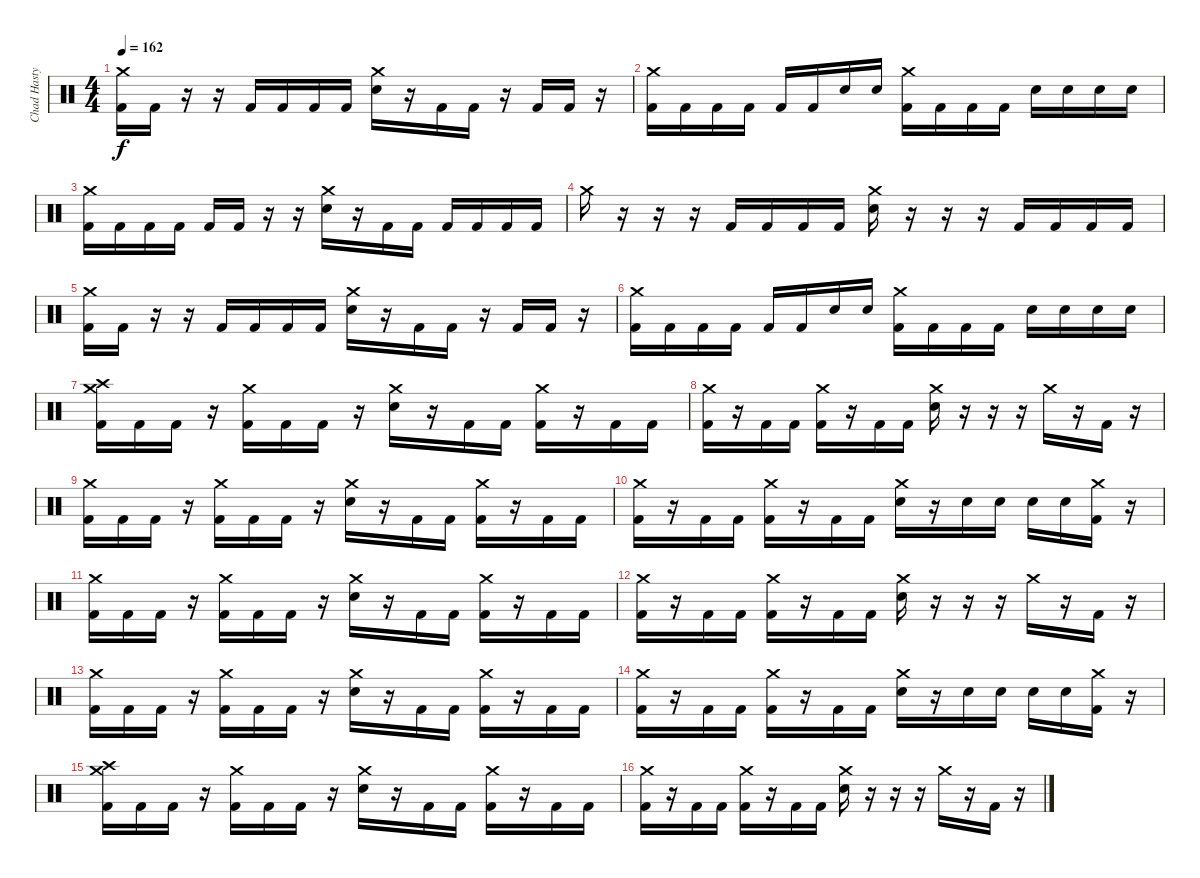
\track ("Chad Hasty" "Chad Hasty") {instrument percussion}
\staff {score}
\articulation defaults
\ts (4 4)
\tempo 162
\clef neutral
\ks c
("Crash medium (hit)" "Kick (hit) 2").16{dy f} "Kick (hit) 2".16 r.16 r.16 "Kick (hit) 2".16 "Kick (hit) 2".16 "Kick (hit) 2".16 "Kick (hit) 2".16 ("Crash medium (hit)" "Snare (hit) 2").16 r.16 "Kick (hit) 2".16 "Kick (hit) 2".16 r.16 "Kick (hit) 2".16 "Kick (hit) 2".16 r.16 |
("Crash medium (hit)" "Kick (hit) 2").16 "Kick (hit) 2".16 "Kick (hit) 2".16 "Kick (hit) 2".16 "Kick (hit) 2".16 "Kick (hit) 2".16 "Snare (hit) 2".16 "Snare (hit) 2".16 ("Crash medium (hit)" "Kick (hit) 2").16 "Kick (hit) 2".16 "Kick (hit) 2".16 "Kick (hit) 2".16 "Snare (hit) 2".16 "Snare (hit) 2".16 "Snare (hit) 2".16 "Snare (hit) 2".16 |
("Crash medium (hit)" "Kick (hit) 2").16 "Kick (hit) 2".16 "Kick (hit) 2".16 "Kick (hit) 2".16 "Kick (hit) 2".16 "Kick (hit) 2".16 r.16 r.16 ("Crash medium (hit)" "Snare (hit) 2").16 r.16 "Kick (hit) 2".16 "Kick (hit) 2".16 "Kick (hit) 2".16 "Kick (hit) 2".16 "Kick (hit) 2".16 "Kick (hit) 2".16 |
"Crash medium (hit)".16 r.16 r.16 r.16 "Kick (hit) 2".16 "Kick (hit) 2".16 "Kick (hit) 2".16 "Kick (hit) 2".16 ("Crash medium (hit)" "Snare (hit) 2").16 r.16 r.16 r.16 "Kick (hit) 2".16 "Kick (hit) 2".16 "Kick (hit) 2".16 "Kick (hit) 2".16 |
("Crash medium (hit)" "Kick (hit) 2").16 "Kick (hit) 2".16 r.16 r.16 "Kick (hit) 2".16 "Kick (hit) 2".16 "Kick (hit) 2".16 "Kick (hit) 2".16 ("Crash medium (hit)" "Snare (hit) 2").16 r.16 "Kick (hit) 2".16 "Kick (hit) 2".16 r.16 "Kick (hit) 2".16 "Kick (hit) 2".16 r.16 |
("Crash medium (hit)" "Kick (hit) 2").16 "Kick (hit) 2".16 "Kick (hit) 2".16 "Kick (hit) 2".16 "Kick (hit) 2".16 "Kick (hit) 2".16 "Snare (hit) 2".16 "Snare (hit) 2".16 ("Crash medium (hit)" "Kick (hit) 2").16 "Kick (hit) 2".16 "Kick (hit) 2".16 "Kick (hit) 2".16 "Snare (hit) 2".16 "Snare (hit) 2".16 "Snare (hit) 2".16 "Snare (hit) 2".16 |
("Crash medium (hit)" "Crash high (hit)" "Kick (hit) 2").16 "Kick (hit) 2".16 "Kick (hit) 2".16 r.16 ("Crash medium (hit)" "Kick (hit) 2").16 "Kick (hit) 2".16 "Kick (hit) 2".16 r.16 ("Crash medium (hit)" "Snare (hit) 2").16 r.16 "Kick (hit) 2".16 "Kick (hit) 2".16 ("Crash medium (hit)" "Kick (hit) 2").16 r.16 "Kick (hit) 2".16 "Kick (hit) 2".16 |
("Crash medium (hit)" "Kick (hit) 2").16 r.16 "Kick (hit) 2".16 "Kick (hit) 2".16 ("Crash medium (hit)" "Kick (hit) 2").16 r.16 "Kick (hit) 2".16 "Kick (hit) 2".16 ("Crash medium (hit)" "Snare (hit) 2").16 r.16 r.16 r.16 "Crash medium (hit)".16 r.16 "Kick (hit) 2".16 r.16 |
("Crash medium (hit)" "Kick (hit) 2").16 "Kick (hit) 2".16 "Kick (hit) 2".16 r.16 ("Crash medium (hit)" "Kick (hit) 2").16 "Kick (hit) 2".16 "Kick (hit) 2".16 r.16 ("Crash medium (hit)" "Snare (hit) 2").16 r.16 "Kick (hit) 2".16 "Kick (hit) 2".16 ("Crash medium (hit)" "Kick (hit) 2").16 r.16 "Kick (hit) 2".16 "Kick (hit) 2".16 |
("Crash medium (hit)" "Kick (hit) 2").16 r.16 "Kick (hit) 2".16 "Kick (hit) 2".16 ("Crash medium (hit)" "Kick (hit) 2").16 r.16 "Kick (hit) 2".16 "Kick (hit) 2".16 ("Crash medium (hit)" "Snare (hit) 2").16 r.16 "Snare (hit) 2".16 "Snare (hit) 2".16 "Snare (hit) 2".16 "Snare (hit) 2".16 ("Crash medium (hit)" "Kick (hit) 2").16 r.16 |
("Crash medium (hit)" "Kick (hit) 2").16 "Kick (hit) 2".16 "Kick (hit) 2".16 r.16 ("Crash medium (hit)" "Kick (hit) 2").16 "Kick (hit) 2".16 "Kick (hit) 2".16 r.16 ("Crash medium (hit)" "Snare (hit) 2").16 r.16 "Kick (hit) 2".16 "Kick (hit) 2".16 ("Crash medium (hit)" "Kick (hit) 2").16 r.16 "Kick (hit) 2".16 "Kick (hit) 2".16 |
("Crash medium (hit)" "Kick (hit) 2").16 r.16 "Kick (hit) 2".16 "Kick (hit) 2".16 ("Crash medium (hit)" "Kick (hit) 2").16 r.16 "Kick (hit) 2".16 "Kick (hit) 2".16 ("Crash medium (hit)" "Snare (hit) 2").16 r.16 r.16 r.16 "Crash medium (hit)".16 r.16 "Kick (hit) 2".16 r.16 |
("Crash medium (hit)" "Kick (hit) 2").16 "Kick (hit) 2".16 "Kick (hit) 2".16 r.16 ("Crash medium (hit)" "Kick (hit) 2").16 "Kick (hit) 2".16 "Kick (hit) 2".16 r.16 ("Crash medium (hit)" "Snare (hit) 2").16 r.16 "Kick (hit) 2".16 "Kick (hit) 2".16 ("Crash medium (hit)" "Kick (hit) 2").16 r.16 "Kick (hit) 2".16 "Kick (hit) 2".16 |
("Crash medium (hit)" "Kick (hit) 2").16 r.16 "Kick (hit) 2".16 "Kick (hit) 2".16 ("Crash medium (hit)" "Kick (hit) 2").16 r.16 "Kick (hit) 2".16 "Kick (hit) 2".16 ("Crash medium (hit)" "Snare (hit) 2").16 r.16 "Snare (hit) 2".16 "Snare (hit) 2".16 "Snare (hit) 2".16 "Snare (hit) 2".16 ("Crash medium (hit)" "Kick (hit) 2").16 r.16 |
("Crash medium (hit)" "Crash high (hit)" "Kick (hit) 2").16 "Kick (hit) 2".16 "Kick (hit) 2".16 r.16 ("Crash medium (hit)" "Kick (hit) 2").16 "Kick (hit) 2".16 "Kick (hit) 2".16 r.16 ("Crash medium (hit)" "Snare (hit) 2").16 r.16 "Kick (hit) 2".16 "Kick (hit) 2".16 ("Crash medium (hit)" "Kick (hit) 2").16 r.16 "Kick (hit) 2".16 "Kick (hit) 2".16 |
("Crash medium (hit)" "Kick (hit) 2").16 r.16 "Kick (hit) 2".16 "Kick (hit) 2".16 ("Crash medium (hit)" "Kick (hit) 2").16 r.16 "Kick (hit) 2".16 "Kick (hit) 2".16 ("Crash medium (hit)" "Snare (hit) 2").16 r.16 r.16 r.16 "Crash medium (hit)".16 r.16 "Kick (hit) 2".16 r.16
